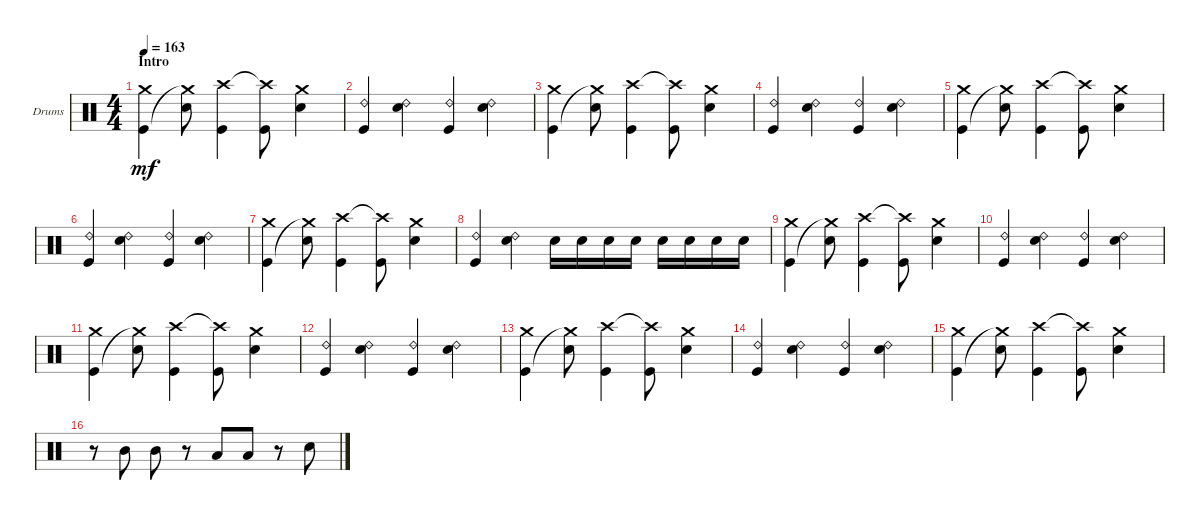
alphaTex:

\bracketExtendMode groupsimilarinstruments
\firstSystemTrackNameOrientation horizontal
\otherSystemsTrackNameOrientation horizontal
\track ("Drums" "Drums") {instrument percussion}
\staff {score}
\articulation defaults
\ts (4 4)
\section ("" "Intro")
\tempo 163
\clef neutral
\scale
0.472222
\ks c
("Crash medium (hit)" "Kick (hit)").4{dy mf} ("Snare (hit) 2" "Crash medium (hit)"{t}).8 ("Kick (hit)" "Crash high (hit)").4 ("Kick (hit)" "Crash high (hit)"{t}).8 ("Snare (hit) 2" "Crash medium (hit)").4 |
\scale
0.263889 ("Ride (bell) 2" "Kick (hit)").4 ("Ride (bell) 2" "Snare (hit) 2").4 ("Ride (bell) 2" "Kick (hit)").4 ("Ride (bell) 2" "Snare (hit) 2").4 |
\scale
0.263889 ("Crash medium (hit)" "Kick (hit)").4 ("Snare (hit) 2" "Crash medium (hit)"{t}).8 ("Kick (hit)" "Crash high (hit)").4 ("Kick (hit)" "Crash high (hit)"{t}).8 ("Snare (hit) 2" "Crash medium (hit)").4 |
\scale
0.333333 ("Ride (bell) 2" "Kick (hit)").4 ("Ride (bell) 2" "Snare (hit) 2").4 ("Ride (bell) 2" "Kick (hit)").4 ("Ride (bell) 2" "Snare (hit) 2").4 |
\scale
0.333333 ("Crash medium (hit)" "Kick (hit)").4 ("Snare (hit) 2" "Crash medium (hit)"{t}).8 ("Kick (hit)" "Crash high (hit)").4 ("Kick (hit)" "Crash high (hit)"{t}).8 ("Snare (hit) 2" "Crash medium (hit)").4 |
\scale
0.333333 ("Ride (bell) 2" "Kick (hit)").4 ("Ride (bell) 2" "Snare (hit) 2").4 ("Ride (bell) 2" "Kick (hit)").4 ("Ride (bell) 2" "Snare (hit) 2").4 |
\scale
0.333333 ("Crash medium (hit)" "Kick (hit)").4 ("Snare (hit) 2" "Crash medium (hit)"{t}).8 ("Kick (hit)" "Crash high (hit)").4 ("Kick (hit)" "Crash high (hit)"{t}).8 ("Snare (hit) 2" "Crash medium (hit)").4 |
\scale
0.333333 ("Ride (bell) 2" "Kick (hit)").4 ("Ride (bell) 2" "Snare (hit) 2").4 "Snare (hit) 2".16 "Snare (hit) 2".16 "Snare (hit) 2".16 "Snare (hit) 2".16 "Snare (hit) 2".16 "Snare (hit) 2".16 "Snare (hit) 2".16 "Snare (hit) 2".16 |
\scale
0.333333 ("Crash medium (hit)" "Kick (hit)").4 ("Snare (hit) 2" "Crash medium (hit)"{t}).8 ("Kick (hit)" "Crash high (hit)").4 ("Kick (hit)" "Crash high (hit)"{t}).8 ("Snare (hit) 2" "Crash medium (hit)").4 |
\scale
0.333333 ("Ride (bell) 2" "Kick (hit)").4 ("Ride (bell) 2" "Snare (hit) 2").4 ("Ride (bell) 2" "Kick (hit)").4 ("Ride (bell) 2" "Snare (hit) 2").4 |
\scale
0.333333 ("Crash medium (hit)" "Kick (hit)").4 ("Snare (hit) 2" "Crash medium (hit)"{t}).8 ("Kick (hit)" "Crash high (hit)").4 ("Kick (hit)" "Crash high (hit)"{t}).8 ("Snare (hit) 2" "Crash medium (hit)").4 |
\scale
0.333333 ("Ride (bell) 2" "Kick (hit)").4 ("Ride (bell) 2" "Snare (hit) 2").4 ("Ride (bell) 2" "Kick (hit)").4 ("Ride (bell) 2" "Snare (hit) 2").4 |
\scale
0.333333 ("Crash medium (hit)" "Kick (hit)").4 ("Snare (hit) 2" "Crash medium (hit)"{t}).8 ("Kick (hit)" "Crash high (hit)").4 ("Kick (hit)" "Crash high (hit)"{t}).8 ("Snare (hit) 2" "Crash medium (hit)").4 |
\scale
0.333333 ("Ride (bell) 2" "Kick (hit)").4 ("Ride (bell) 2" "Snare (hit) 2").4 ("Ride (bell) 2" "Kick (hit)").4 ("Ride (bell) 2" "Snare (hit) 2").4 |
\scale
0.333333 ("Crash medium (hit)" "Kick (hit)").4 ("Snare (hit) 2" "Crash medium (hit)"{t}).8 ("Kick (hit)" "Crash high (hit)").4 ("Kick (hit)" "Crash high (hit)"{t}).8 ("Snare (hit) 2" "Crash medium (hit)").4 |
\scale
0.333333 r.8 "Mid Tom (hit)".8 "Mid Tom (hit)".8 r.8 "Low Tom (hit)".8 "Low Tom (hit)".8 r.8 "Snare (hit) 2".8
